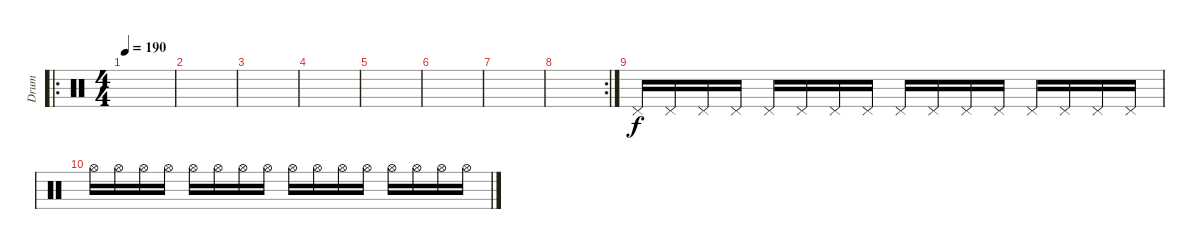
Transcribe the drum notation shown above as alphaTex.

\track ("Drum" "Drum") {instrument percussion}
\staff {score}
\articulation defaults
\ro
\ts (4 4)
\tempo 190
\clef neutral
\ks c
|
|
|
|
|
|
|
\rc 2
|
"Pedal Hi-Hat (hit)".16{volume 14} "Pedal Hi-Hat (hit)".16 "Pedal Hi-Hat (hit)".16 "Pedal Hi-Hat (hit)".16 "Pedal Hi-Hat (hit)".16 "Pedal Hi-Hat (hit)".16 "Pedal Hi-Hat (hit)".16 "Pedal Hi-Hat (hit)".16 "Pedal Hi-Hat (hit)".16 "Pedal Hi-Hat (hit)".16 "Pedal Hi-Hat (hit)".16 "Pedal Hi-Hat (hit)".16 "Pedal Hi-Hat (hit)".16 "Pedal Hi-Hat (hit)".16 "Pedal Hi-Hat (hit)".16 "Pedal Hi-Hat (hit)".16 |
"Hi-Hat (open)".16 "Hi-Hat (open)".16 "Hi-Hat (open)".16 "Hi-Hat (open)".16 "Hi-Hat (open)".16 "Hi-Hat (open)".16 "Hi-Hat (open)".16 "Hi-Hat (open)".16 "Hi-Hat (open)".16 "Hi-Hat (open)".16 "Hi-Hat (open)".16 "Hi-Hat (open)".16 "Hi-Hat (open)".16 "Hi-Hat (open)".16 "Hi-Hat (open)".16 "Hi-Hat (open)".16
